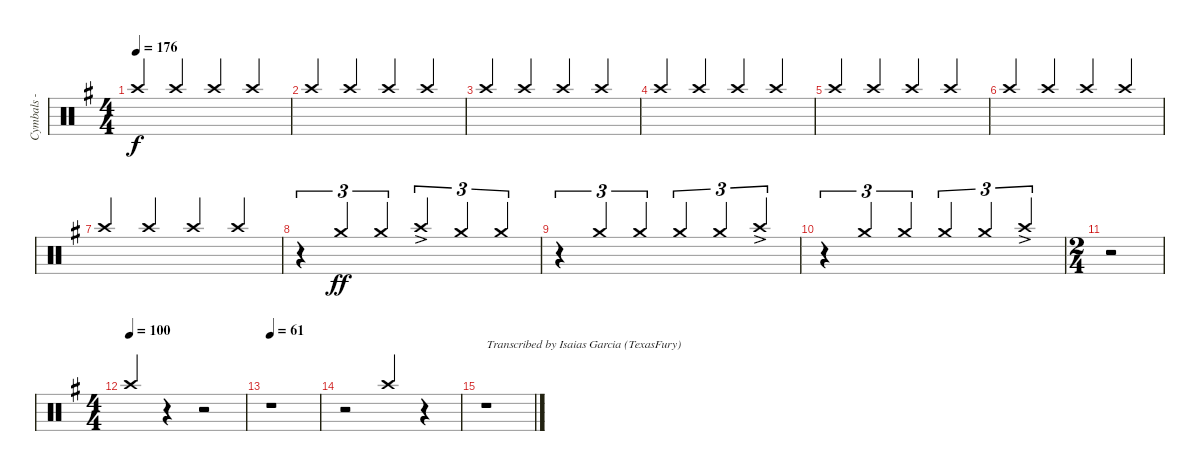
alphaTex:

\track ("Cymbals - crash" "Cymbals - ") {instrument percussion}
\staff {score}
\articulation defaults
\ts (4 4)
\tempo 176
\clef neutral
\ks eminor "Crash high (hit)".4{dy f beam Up} "Crash high (hit)".4{beam Up} "Crash high (hit)".4{beam Up} "Crash high (hit)".4{beam Up}
|
"Crash high (hit)".4{beam Up} "Crash high (hit)".4{beam Up} "Crash high (hit)".4{beam Up} "Crash high (hit)".4{beam Up} |
"Crash high (hit)".4{beam Up} "Crash high (hit)".4{beam Up} "Crash high (hit)".4{beam Up} "Crash high (hit)".4{beam Up} |
"Crash high (hit)".4{beam Up} "Crash high (hit)".4{beam Up} "Crash high (hit)".4{beam Up} "Crash high (hit)".4{beam Up} |
"Crash high (hit)".4{beam Up} "Crash high (hit)".4{beam Up} "Crash high (hit)".4{beam Up} "Crash high (hit)".4{beam Up} |
"Crash high (hit)".4{beam Up} "Crash high (hit)".4{beam Up} "Crash high (hit)".4{beam Up} "Crash high (hit)".4{beam Up} |
"Crash high (hit)".4{beam Up} "Crash high (hit)".4{beam Up} "Crash high (hit)".4{beam Up} "Crash high (hit)".4{beam Up} |
r.4{tu (3 2) balance 8 beam Up} "Crash medium (hit)".4{tu (3 2) dy ff beam Up} "Crash medium (hit)".4{tu (3 2) beam Up} "Crash high (hit)"{ac}.4{tu (3 2) beam Up} "Crash medium (hit)".4{tu (3 2) beam Up} "Crash medium (hit)".4{tu (3 2) beam Up} |
r.4{tu (3 2) beam Up} "Crash medium (hit)".4{tu (3 2) beam Up} "Crash medium (hit)".4{tu (3 2) beam Up} "Crash medium (hit)".4{tu (3 2) beam Up} "Crash medium (hit)".4{tu (3 2) beam Up} "Crash high (hit)"{ac}.4{tu (3 2) beam Up} |
\ks g
r.4{tu (3 2) beam Up} "Crash medium (hit)".4{tu (3 2) beam Up} "Crash medium (hit)".4{tu (3 2) beam Up} "Crash medium (hit)".4{tu (3 2) beam Up} "Crash medium (hit)".4{tu (3 2) beam Up} "Crash high (hit)"{ac}.4{tu (3 2) beam Up} |
\ts (2 4)
r.2 |
\ts (4 4)
\tempo (100)
"Crash high (hit)".4{beam Up} r.4 r.2 |
\tempo 61
r.1 |
r.2 "Crash high (hit)".4{beam Up} r.4 |
r.1{txt "Transcribed by Isaias Garcia (TexasFury)"}
